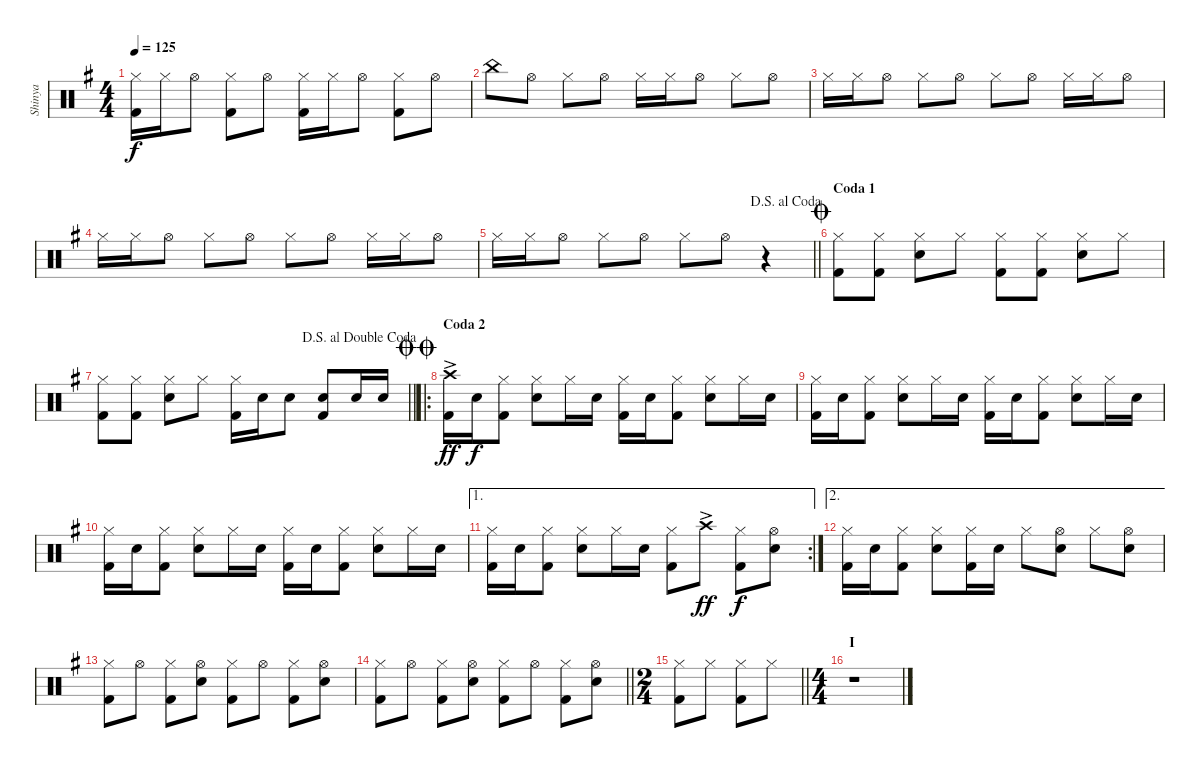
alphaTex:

\track ("Shinya" "Shinya") {instrument percussion}
\staff {score}
\articulation defaults
\ts (4 4)
\tempo 125
\clef neutral
\ks g
("Hi-Hat (closed)" "Kick (hit) 2").16{dy f} "Hi-Hat (closed)".16 "Hi-Hat (open)".8 ("Hi-Hat (closed)" "Kick (hit) 2").8 "Hi-Hat (open)".8 ("Hi-Hat (closed)" "Kick (hit) 2").16 "Hi-Hat (closed)".16 "Hi-Hat (open)".8 ("Hi-Hat (closed)" "Kick (hit) 2").8 "Hi-Hat (open)".8 |
"China (hit)".8 "Hi-Hat (open)".8 "Hi-Hat (closed)".8 "Hi-Hat (open)".8 "Hi-Hat (closed)".16 "Hi-Hat (closed)".16 "Hi-Hat (open)".8 "Hi-Hat (closed)".8 "Hi-Hat (open)".8 |
"Hi-Hat (closed)".16 "Hi-Hat (closed)".16 "Hi-Hat (open)".8 "Hi-Hat (closed)".8 "Hi-Hat (open)".8 "Hi-Hat (closed)".8 "Hi-Hat (open)".8 "Hi-Hat (closed)".16 "Hi-Hat (closed)".16 "Hi-Hat (open)".8 |
"Hi-Hat (closed)".16 "Hi-Hat (closed)".16 "Hi-Hat (open)".8 "Hi-Hat (closed)".8 "Hi-Hat (open)".8 "Hi-Hat (closed)".8 "Hi-Hat (open)".8 "Hi-Hat (closed)".16 "Hi-Hat (closed)".16 "Hi-Hat (open)".8 |
\jump dalsegnoalcoda
\barLineRight lightlight "Hi-Hat (closed)".16 "Hi-Hat (closed)".16 "Hi-Hat (open)".8 "Hi-Hat (closed)".8 "Hi-Hat (open)".8 "Hi-Hat (closed)".8 "Hi-Hat (open)".8
r.4 |
\section ("" "Coda 1")
\jump coda
("Hi-Hat (closed)" "Kick (hit) 2").8 ("Hi-Hat (closed)" "Kick (hit) 2").8 ("Hi-Hat (closed)" "Snare (hit) 2").8 "Hi-Hat (closed)".8 ("Hi-Hat (closed)" "Kick (hit) 2").8 ("Hi-Hat (closed)" "Kick (hit) 2").8 ("Hi-Hat (closed)" "Snare (hit) 2").8 "Hi-Hat (closed)".8 |
\jump dalsegnoaldoublecoda
\barLineRight lightlight
("Hi-Hat (closed)" "Kick (hit) 2").8 ("Hi-Hat (closed)" "Kick (hit) 2").8 ("Hi-Hat (closed)" "Snare (hit) 2").8 "Hi-Hat (closed)".8 ("Hi-Hat (closed)" "Kick (hit) 2").16 "Snare (hit) 2".16 "Snare (hit) 2".8 ("Snare (hit) 2" "Kick (hit) 2").8 "Snare (hit) 2".16 "Snare (hit) 2".16 |
\ro
\section ("" "Coda 2")
\jump doublecoda
("Crash high (hit)"{ac} "Kick (hit) 2").16{dy ff} "Snare (hit) 2".16{dy f} ("Hi-Hat (closed)" "Kick (hit) 2").8 ("Hi-Hat (closed)" "Snare (hit) 2").8 "Hi-Hat (closed)".16 "Snare (hit) 2".16 ("Hi-Hat (closed)" "Kick (hit) 2").16 "Snare (hit) 2".16 ("Hi-Hat (closed)" "Kick (hit) 2").8 ("Hi-Hat (closed)" "Snare (hit) 2").8 "Hi-Hat (closed)".16 "Snare (hit) 2".16 |
("Hi-Hat (closed)" "Kick (hit) 2").16 "Snare (hit) 2".16 ("Hi-Hat (closed)" "Kick (hit) 2").8 ("Hi-Hat (closed)" "Snare (hit) 2").8 "Hi-Hat (closed)".16 "Snare (hit) 2".16 ("Hi-Hat (closed)" "Kick (hit) 2").16 "Snare (hit) 2".16 ("Hi-Hat (closed)" "Kick (hit) 2").8 ("Hi-Hat (closed)" "Snare (hit) 2").8 "Hi-Hat (closed)".16 "Snare (hit) 2".16 |
("Hi-Hat (closed)" "Kick (hit) 2").16 "Snare (hit) 2".16 ("Hi-Hat (closed)" "Kick (hit) 2").8 ("Hi-Hat (closed)" "Snare (hit) 2").8 "Hi-Hat (closed)".16 "Snare (hit) 2".16 ("Hi-Hat (closed)" "Kick (hit) 2").16 "Snare (hit) 2".16 ("Hi-Hat (closed)" "Kick (hit) 2").8 ("Hi-Hat (closed)" "Snare (hit) 2").8 "Hi-Hat (closed)".16 "Snare (hit) 2".16 |
\ae 1
\rc 2
("Hi-Hat (closed)" "Kick (hit) 2").16 "Snare (hit) 2".16 ("Hi-Hat (closed)" "Kick (hit) 2").8 ("Hi-Hat (closed)" "Snare (hit) 2").8 "Hi-Hat (closed)".16 "Snare (hit) 2".16 ("Hi-Hat (closed)" "Kick (hit) 2").8 "Crash high (hit)"{ac}.8{dy ff} ("Hi-Hat (closed)" "Kick (hit) 2").8{dy f} ("Hi-Hat (open)" "Snare (hit) 2").8 |
\ae 2
("Hi-Hat (closed)" "Kick (hit) 2").16 "Snare (hit) 2".16 ("Hi-Hat (closed)" "Kick (hit) 2").8 ("Hi-Hat (closed)" "Snare (hit) 2").8 ("Hi-Hat (closed)" "Kick (hit) 2").16 "Snare (hit) 2".16 "Hi-Hat (closed)".8 ("Hi-Hat (open)" "Snare (hit) 2").8 "Hi-Hat (closed)".8 ("Hi-Hat (open)" "Snare (hit) 2").8 |
("Hi-Hat (closed)" "Kick (hit) 2").8 "Hi-Hat (open)".8 ("Hi-Hat (closed)" "Kick (hit) 2").8 ("Hi-Hat (open)" "Snare (hit) 2").8 ("Hi-Hat (closed)" "Kick (hit) 2").8 "Hi-Hat (open)".8 ("Hi-Hat (closed)" "Kick (hit) 2").8 ("Hi-Hat (open)" "Snare (hit) 2").8 |
\barLineRight lightlight
("Hi-Hat (closed)" "Kick (hit) 2").8 "Hi-Hat (open)".8 ("Hi-Hat (closed)" "Kick (hit) 2").8 ("Hi-Hat (open)" "Snare (hit) 2").8 ("Hi-Hat (closed)" "Kick (hit) 2").8 "Hi-Hat (open)".8 ("Hi-Hat (closed)" "Kick (hit) 2").8 ("Hi-Hat (open)" "Snare (hit) 2").8 |
\ts (2 4)
\barLineRight lightlight
("Hi-Hat (closed)" "Kick (hit) 2").8 "Hi-Hat (closed)".8 ("Hi-Hat (closed)" "Kick (hit) 2").8 "Hi-Hat (closed)".8 |
\ts (4 4)
\section ("" "I")
r.1
